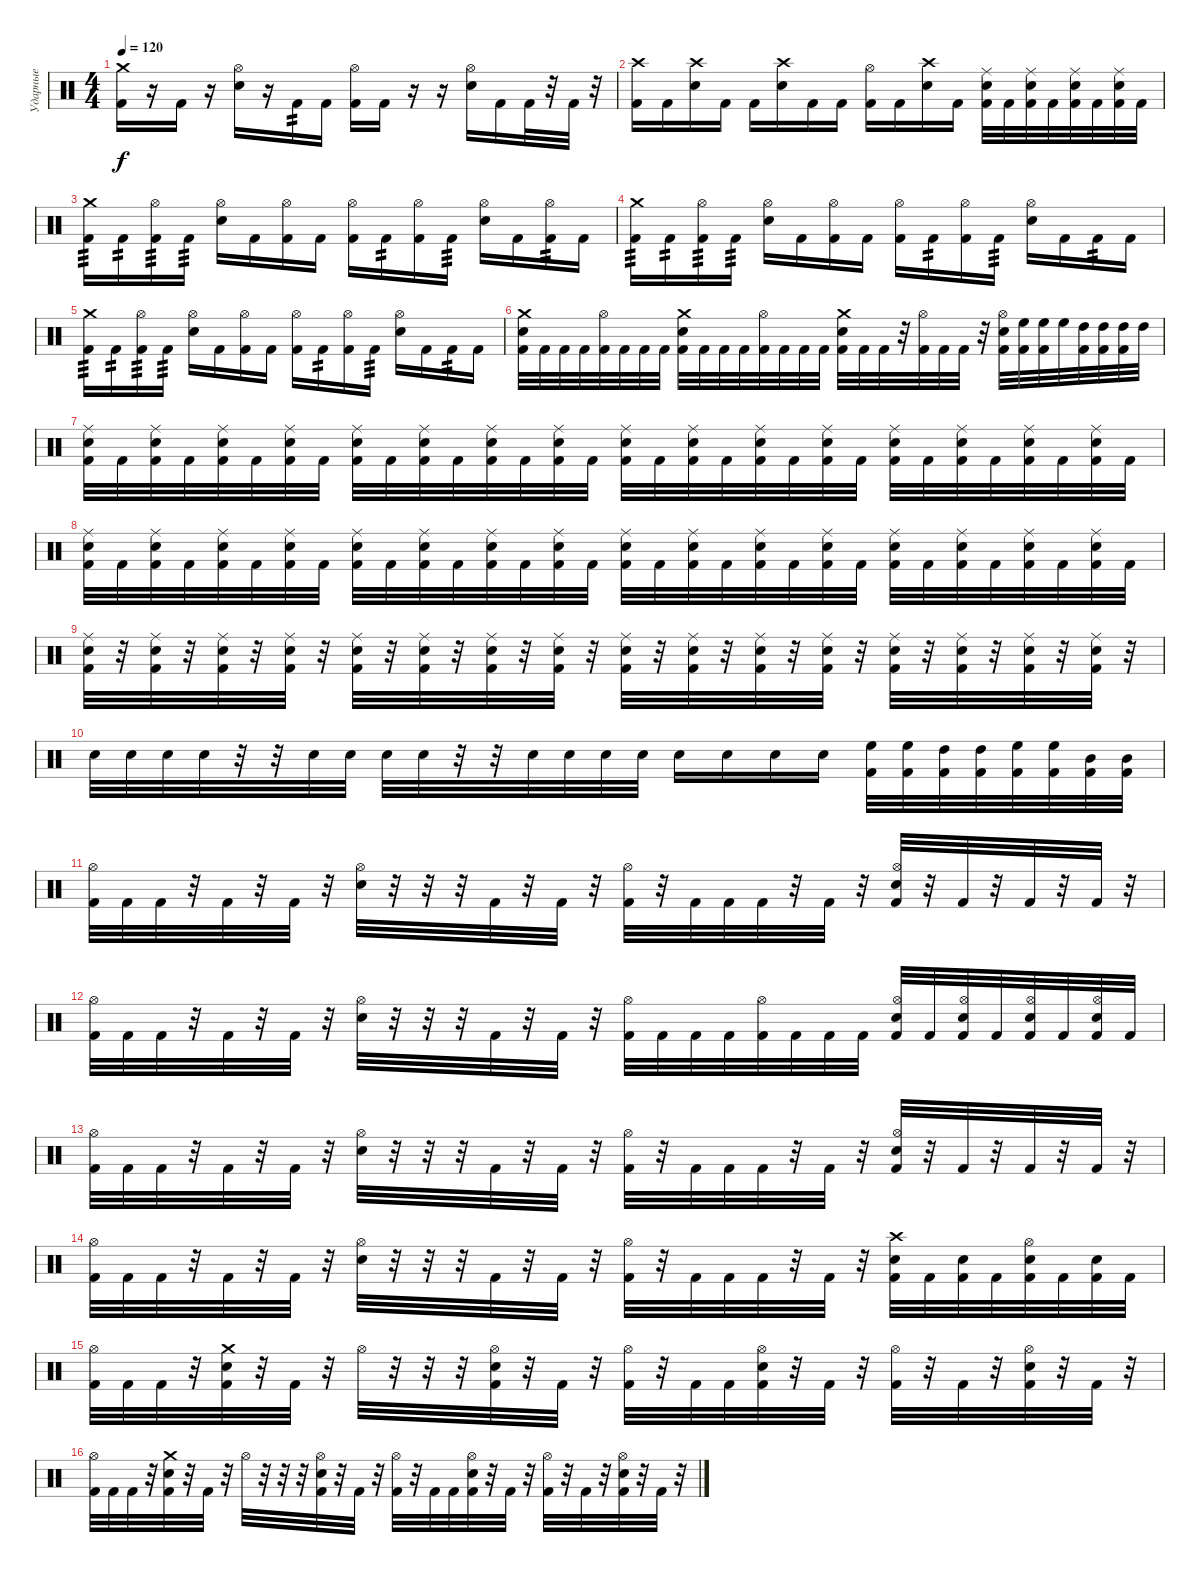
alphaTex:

\track ("Ударные" "Ударные") {instrument percussion}
\staff {score}
\articulation defaults
\ts (4 4)
\tempo 120
\clef neutral
\ks c
("Crash medium (hit)" "Kick (hit) 2").16{dy f} r.16 "Kick (hit) 2".16 r.16 ("Hi-Hat (open)" "Snare (hit) 2").16 r.16 "Kick (hit) 2".16{tp 2} "Kick (hit) 2".16 ("Hi-Hat (open)" "Kick (hit) 2").16 "Kick (hit) 2".16 r.16 r.16 ("Hi-Hat (open)" "Snare (hit) 2").16 "Kick (hit) 2".16 "Kick (hit) 2".32 r.32 "Kick (hit) 2".32 r.32 |
("Crash high (hit)" "Kick (hit) 2").16 "Kick (hit) 2".16 ("Crash high (hit)" "Snare (hit) 2").16 "Kick (hit) 2".16 "Kick (hit) 2".16 ("Crash high (hit)" "Snare (hit) 2").16 "Kick (hit) 2".16 "Kick (hit) 2".16 ("Hi-Hat (open)" "Kick (hit) 2").16 "Kick (hit) 2".16 ("Crash high (hit)" "Snare (hit) 2").16 "Kick (hit) 2".16 ("Ride (middle)" "Snare (hit) 2" "Kick (hit) 2").32 "Kick (hit) 2".32 ("Ride (middle)" "Snare (hit) 2" "Kick (hit) 2").32 "Kick (hit) 2".32 ("Ride (middle)" "Snare (hit) 2" "Kick (hit) 2").32 "Kick (hit) 2".32 ("Ride (middle)" "Snare (hit) 2" "Kick (hit) 2").32 "Kick (hit) 2".32 |
("Crash medium (hit)" "Kick (hit) 2").16{tp 3} "Kick (hit) 2".16{tp 2} ("Hi-Hat (open)" "Kick (hit) 2").16{tp 3} "Kick (hit) 2".16{tp 3} ("Hi-Hat (open)" "Snare (hit) 2").16 "Kick (hit) 2".16 ("Hi-Hat (open)" "Kick (hit) 2").16 "Kick (hit) 2".16 ("Hi-Hat (open)" "Kick (hit) 2").16 "Kick (hit) 2".16{tp 2} ("Hi-Hat (open)" "Kick (hit) 2").16 "Kick (hit) 2".16{tp 3} ("Hi-Hat (open)" "Snare (hit) 2").16 "Kick (hit) 2".16 ("Hi-Hat (open)" "Kick (hit) 2").16{tp 2} "Kick (hit) 2".16 |
("Crash medium (hit)" "Kick (hit) 2").16{tp 3} "Kick (hit) 2".16{tp 2} ("Hi-Hat (open)" "Kick (hit) 2").16{tp 3} "Kick (hit) 2".16{tp 3} ("Hi-Hat (open)" "Snare (hit) 2").16 "Kick (hit) 2".16 ("Hi-Hat (open)" "Kick (hit) 2").16 "Kick (hit) 2".16 ("Hi-Hat (open)" "Kick (hit) 2").16 "Kick (hit) 2".16{tp 2} ("Hi-Hat (open)" "Kick (hit) 2").16 "Kick (hit) 2".16{tp 3} ("Hi-Hat (open)" "Snare (hit) 2").16 "Kick (hit) 2".16 "Kick (hit) 2".16{tp 2} "Kick (hit) 2".16 |
("Crash medium (hit)" "Kick (hit) 2").16{tp 3} "Kick (hit) 2".16{tp 2} ("Hi-Hat (open)" "Kick (hit) 2").16{tp 3} "Kick (hit) 2".16{tp 3} ("Hi-Hat (open)" "Snare (hit) 2").16 "Kick (hit) 2".16 ("Hi-Hat (open)" "Kick (hit) 2").16 "Kick (hit) 2".16 ("Hi-Hat (open)" "Kick (hit) 2").16 "Kick (hit) 2".16{tp 2} ("Hi-Hat (open)" "Kick (hit) 2").16 "Kick (hit) 2".16{tp 3} ("Hi-Hat (open)" "Snare (hit) 2").16 "Kick (hit) 2".16 "Kick (hit) 2".16{tp 2} "Kick (hit) 2".16 |
("Crash medium (hit)" "Snare (hit) 2" "Kick (hit) 2").32 "Kick (hit) 2".32 "Kick (hit) 2".32 "Kick (hit) 2".32 ("Hi-Hat (open)" "Kick (hit) 2").32 "Kick (hit) 2".32 "Kick (hit) 2".32 "Kick (hit) 2".32 ("Crash medium (hit)" "Snare (hit) 2" "Kick (hit) 2").32 "Kick (hit) 2".32 "Kick (hit) 2".32 "Kick (hit) 2".32 ("Hi-Hat (open)" "Kick (hit) 2").32 "Kick (hit) 2".32 "Kick (hit) 2".32 "Kick (hit) 2".32 ("Crash medium (hit)" "Snare (hit) 2" "Kick (hit) 2").32 "Kick (hit) 2".32 "Kick (hit) 2".32 r.32 ("Hi-Hat (open)" "Kick (hit) 2").32 "Kick (hit) 2".32 "Kick (hit) 2".32 r.32 ("Hi-Hat (open)" "Snare (hit) 2" "Kick (hit) 2").32 ("High Floor Tom (hit)" "Kick (hit) 2").32 ("High Floor Tom (hit)" "Kick (hit) 2").32 "High Floor Tom (hit)".32 ("High Tom (hit)" "Kick (hit) 2").32 ("High Tom (hit)" "Kick (hit) 2").32 ("High Tom (hit)" "Kick (hit) 2").32 "High Tom (hit)".32 |
("Ride (middle)" "Snare (hit) 2" "Kick (hit) 2").32 "Kick (hit) 2".32 ("Ride (middle)" "Snare (hit) 2" "Kick (hit) 2").32 "Kick (hit) 2".32 ("Ride (middle)" "Snare (hit) 2" "Kick (hit) 2").32 "Kick (hit) 2".32 ("Ride (middle)" "Snare (hit) 2" "Kick (hit) 2").32 "Kick (hit) 2".32 ("Ride (middle)" "Snare (hit) 2" "Kick (hit) 2").32 "Kick (hit) 2".32 ("Ride (middle)" "Snare (hit) 2" "Kick (hit) 2").32 "Kick (hit) 2".32 ("Ride (middle)" "Snare (hit) 2" "Kick (hit) 2").32 "Kick (hit) 2".32 ("Ride (middle)" "Snare (hit) 2" "Kick (hit) 2").32 "Kick (hit) 2".32 ("Ride (middle)" "Snare (hit) 2" "Kick (hit) 2").32 "Kick (hit) 2".32 ("Ride (middle)" "Snare (hit) 2" "Kick (hit) 2").32 "Kick (hit) 2".32 ("Ride (middle)" "Snare (hit) 2" "Kick (hit) 2").32 "Kick (hit) 2".32 ("Ride (middle)" "Snare (hit) 2" "Kick (hit) 2").32 "Kick (hit) 2".32 ("Ride (middle)" "Snare (hit) 2" "Kick (hit) 2").32 "Kick (hit) 2".32 ("Ride (middle)" "Snare (hit) 2" "Kick (hit) 2").32 "Kick (hit) 2".32 ("Ride (middle)" "Snare (hit) 2" "Kick (hit) 2").32 "Kick (hit) 2".32 ("Ride (middle)" "Snare (hit) 2" "Kick (hit) 2").32 "Kick (hit) 2".32 |
("Ride (middle)" "Snare (hit) 2" "Kick (hit) 2").32 "Kick (hit) 2".32 ("Ride (middle)" "Snare (hit) 2" "Kick (hit) 2").32 "Kick (hit) 2".32 ("Ride (middle)" "Snare (hit) 2" "Kick (hit) 2").32 "Kick (hit) 2".32 ("Ride (middle)" "Snare (hit) 2" "Kick (hit) 2").32 "Kick (hit) 2".32 ("Ride (middle)" "Snare (hit) 2" "Kick (hit) 2").32 "Kick (hit) 2".32 ("Ride (middle)" "Snare (hit) 2" "Kick (hit) 2").32 "Kick (hit) 2".32 ("Ride (middle)" "Snare (hit) 2" "Kick (hit) 2").32 "Kick (hit) 2".32 ("Ride (middle)" "Snare (hit) 2" "Kick (hit) 2").32 "Kick (hit) 2".32 ("Ride (middle)" "Snare (hit) 2" "Kick (hit) 2").32 "Kick (hit) 2".32 ("Ride (middle)" "Snare (hit) 2" "Kick (hit) 2").32 "Kick (hit) 2".32 ("Ride (middle)" "Snare (hit) 2" "Kick (hit) 2").32 "Kick (hit) 2".32 ("Ride (middle)" "Snare (hit) 2" "Kick (hit) 2").32 "Kick (hit) 2".32 ("Ride (middle)" "Snare (hit) 2" "Kick (hit) 2").32 "Kick (hit) 2".32 ("Ride (middle)" "Snare (hit) 2" "Kick (hit) 2").32 "Kick (hit) 2".32 ("Ride (middle)" "Snare (hit) 2" "Kick (hit) 2").32 "Kick (hit) 2".32 ("Ride (middle)" "Snare (hit) 2" "Kick (hit) 2").32 "Kick (hit) 2".32 |
("Ride (middle)" "Snare (hit) 2" "Kick (hit) 2").32 r.32 ("Ride (middle)" "Snare (hit) 2" "Kick (hit) 2").32 r.32 ("Ride (middle)" "Snare (hit) 2" "Kick (hit) 2").32 r.32 ("Ride (middle)" "Snare (hit) 2" "Kick (hit) 2").32 r.32 ("Ride (middle)" "Snare (hit) 2" "Kick (hit) 2").32 r.32 ("Ride (middle)" "Snare (hit) 2" "Kick (hit) 2").32 r.32 ("Ride (middle)" "Snare (hit) 2" "Kick (hit) 2").32 r.32 ("Ride (middle)" "Snare (hit) 2" "Kick (hit) 2").32 r.32 ("Ride (middle)" "Snare (hit) 2" "Kick (hit) 2").32 r.32 ("Ride (middle)" "Snare (hit) 2" "Kick (hit) 2").32 r.32 ("Ride (middle)" "Snare (hit) 2" "Kick (hit) 2").32 r.32 ("Ride (middle)" "Snare (hit) 2" "Kick (hit) 2").32 r.32 ("Ride (middle)" "Snare (hit) 2" "Kick (hit) 2").32 r.32 ("Ride (middle)" "Snare (hit) 2" "Kick (hit) 2").32 r.32 ("Ride (middle)" "Snare (hit) 2" "Kick (hit) 2").32 r.32 ("Ride (middle)" "Snare (hit) 2" "Kick (hit) 2").32 r.32 |
"Snare (hit) 2".32 "Snare (hit) 2".32 "Snare (hit) 2".32 "Snare (hit) 2".32 r.32 r.32 "Snare (hit) 2".32 "Snare (hit) 2".32 "Snare (hit) 2".32 "Snare (hit) 2".32 r.32 r.32 "Snare (hit) 2".32 "Snare (hit) 2".32 "Snare (hit) 2".32 "Snare (hit) 2".32 "Snare (hit) 2".16 "Snare (hit) 2".16 "Snare (hit) 2".16 "Snare (hit) 2".16 ("Kick (hit) 2" "High Floor Tom (hit)").32 ("Kick (hit) 2" "High Floor Tom (hit)").32 ("Kick (hit) 2" "High Tom (hit)").32 ("Kick (hit) 2" "High Tom (hit)").32 ("Kick (hit) 2" "High Floor Tom (hit)").32 ("Kick (hit) 2" "High Floor Tom (hit)").32 ("Kick (hit) 2" "Mid Tom (hit)").32 ("Kick (hit) 2" "Mid Tom (hit)").32 |
("Hi-Hat (open)" "Kick (hit) 2").32 "Kick (hit) 2".32 "Kick (hit) 2".32 r.32 "Kick (hit) 2".32 r.32 "Kick (hit) 2".32 r.32 ("Hi-Hat (open)" "Snare (hit) 2").32 r.32 r.32 r.32 "Kick (hit) 2".32 r.32 "Kick (hit) 2".32 r.32 ("Hi-Hat (open)" "Kick (hit) 2").32 r.32 "Kick (hit) 2".32 "Kick (hit) 2".32 "Kick (hit) 2".32 r.32 "Kick (hit) 2".32 r.32 ("Hi-Hat (open)" "Snare (hit) 2" "Kick (hit) 2").32 r.32 "Kick (hit) 2".32 r.32 "Kick (hit) 2".32 r.32 "Kick (hit) 2".32 r.32 |
("Hi-Hat (open)" "Kick (hit) 2").32 "Kick (hit) 2".32 "Kick (hit) 2".32 r.32 "Kick (hit) 2".32 r.32 "Kick (hit) 2".32 r.32 ("Hi-Hat (open)" "Snare (hit) 2").32 r.32 r.32 r.32 "Kick (hit) 2".32 r.32 "Kick (hit) 2".32 r.32 ("Hi-Hat (open)" "Kick (hit) 2").32 "Kick (hit) 2".32 "Kick (hit) 2".32 "Kick (hit) 2".32 ("Hi-Hat (open)" "Kick (hit) 2").32 "Kick (hit) 2".32 "Kick (hit) 2".32 "Kick (hit) 2".32 ("Hi-Hat (open)" "Snare (hit) 2" "Kick (hit) 2").32 "Kick (hit) 2".32 ("Hi-Hat (open)" "Snare (hit) 2" "Kick (hit) 2").32 "Kick (hit) 2".32 ("Hi-Hat (open)" "Snare (hit) 2" "Kick (hit) 2").32 "Kick (hit) 2".32 ("Hi-Hat (open)" "Snare (hit) 2" "Kick (hit) 2").32 "Kick (hit) 2".32 |
("Hi-Hat (open)" "Kick (hit) 2").32 "Kick (hit) 2".32 "Kick (hit) 2".32 r.32 "Kick (hit) 2".32 r.32 "Kick (hit) 2".32 r.32 ("Hi-Hat (open)" "Snare (hit) 2").32 r.32 r.32 r.32 "Kick (hit) 2".32 r.32 "Kick (hit) 2".32 r.32 ("Hi-Hat (open)" "Kick (hit) 2").32 r.32 "Kick (hit) 2".32 "Kick (hit) 2".32 "Kick (hit) 2".32 r.32 "Kick (hit) 2".32 r.32 ("Hi-Hat (open)" "Snare (hit) 2" "Kick (hit) 2").32 r.32 "Kick (hit) 2".32 r.32 "Kick (hit) 2".32 r.32 "Kick (hit) 2".32 r.32 |
("Hi-Hat (open)" "Kick (hit) 2").32 "Kick (hit) 2".32 "Kick (hit) 2".32 r.32 "Kick (hit) 2".32 r.32 "Kick (hit) 2".32 r.32 ("Hi-Hat (open)" "Snare (hit) 2").32 r.32 r.32 r.32 "Kick (hit) 2".32 r.32 "Kick (hit) 2".32 r.32 ("Hi-Hat (open)" "Kick (hit) 2").32 r.32 "Kick (hit) 2".32 "Kick (hit) 2".32 "Kick (hit) 2".32 r.32 "Kick (hit) 2".32 r.32 ("Crash high (hit)" "Snare (hit) 2" "Kick (hit) 2").32 "Kick (hit) 2".32 ("Snare (hit) 2" "Kick (hit) 2").32 "Kick (hit) 2".32 ("Hi-Hat (open)" "Snare (hit) 2" "Kick (hit) 2").32 "Kick (hit) 2".32 ("Snare (hit) 2" "Kick (hit) 2").32 "Kick (hit) 2".32 |
("Hi-Hat (open)" "Kick (hit) 2").32 "Kick (hit) 2".32 "Kick (hit) 2".32 r.32 ("Crash medium (hit)" "Snare (hit) 2" "Kick (hit) 2").32 r.32 "Kick (hit) 2".32 r.32 "Hi-Hat (open)".32 r.32 r.32 r.32 ("Hi-Hat (open)" "Snare (hit) 2" "Kick (hit) 2").32 r.32 "Kick (hit) 2".32 r.32 ("Hi-Hat (open)" "Kick (hit) 2").32 r.32 "Kick (hit) 2".32 "Kick (hit) 2".32 ("Hi-Hat (open)" "Snare (hit) 2" "Kick (hit) 2").32 r.32 "Kick (hit) 2".32 r.32 ("Hi-Hat (open)" "Kick (hit) 2").32 r.32 "Kick (hit) 2".32 r.32 ("Hi-Hat (open)" "Snare (hit) 2" "Kick (hit) 2").32 r.32 "Kick (hit) 2".32 r.32 |
("Hi-Hat (open)" "Kick (hit) 2").32 "Kick (hit) 2".32 "Kick (hit) 2".32 r.32 ("Crash medium (hit)" "Snare (hit) 2" "Kick (hit) 2").32 r.32 "Kick (hit) 2".32 r.32 "Hi-Hat (open)".32 r.32 r.32 r.32 ("Hi-Hat (open)" "Snare (hit) 2" "Kick (hit) 2").32 r.32 "Kick (hit) 2".32 r.32 ("Hi-Hat (open)" "Kick (hit) 2").32 r.32 "Kick (hit) 2".32 "Kick (hit) 2".32 ("Hi-Hat (open)" "Snare (hit) 2" "Kick (hit) 2").32 r.32 "Kick (hit) 2".32 r.32 ("Hi-Hat (open)" "Kick (hit) 2").32 r.32 "Kick (hit) 2".32 r.32 ("Hi-Hat (open)" "Snare (hit) 2" "Kick (hit) 2").32 r.32 "Kick (hit) 2".32 r.32
